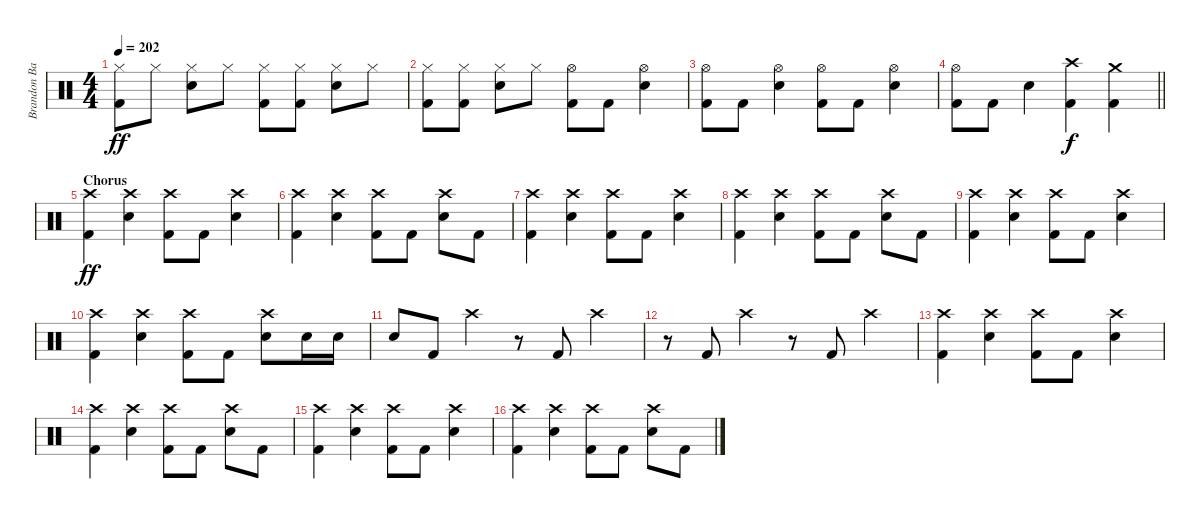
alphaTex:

\track ("Brandon Barnes - Drums" "Brandon Ba") {instrument percussion}
\staff {score}
\articulation defaults
\ts (4 4)
\tempo 202
\clef neutral
\ks c
("Kick (hit) 2" "Hi-Hat (closed)").8{dy ff} "Hi-Hat (closed)".8 ("Snare (hit) 2" "Hi-Hat (closed)").8 "Hi-Hat (closed)".8 ("Kick (hit) 2" "Hi-Hat (closed)").8 ("Kick (hit) 2" "Hi-Hat (closed)").8 ("Snare (hit) 2" "Hi-Hat (closed)").8 "Hi-Hat (closed)".8 |
("Kick (hit) 2" "Hi-Hat (closed)").8 ("Kick (hit) 2" "Hi-Hat (closed)").8 ("Snare (hit) 2" "Hi-Hat (closed)").8 "Hi-Hat (closed)".8 ("Kick (hit) 2" "Hi-Hat (open)").8 "Kick (hit) 2".8 ("Snare (hit) 2" "Hi-Hat (open)").4 |
("Kick (hit) 2" "Hi-Hat (open)").8 "Kick (hit) 2".8 ("Snare (hit) 2" "Hi-Hat (open)").4 ("Kick (hit) 2" "Hi-Hat (open)").8 "Kick (hit) 2".8 ("Snare (hit) 2" "Hi-Hat (open)").4 |
\barLineRight lightlight
("Kick (hit) 2" "Hi-Hat (open)").8 "Kick (hit) 2".8 "Snare (hit) 2".4 ("Crash high (hit)" "Kick (hit) 2").4{dy f} ("Crash medium (hit)" "Kick (hit) 2").4 |
\section ("" "Chorus")
("Kick (hit) 2" "Crash high (hit)").4{dy ff} ("Snare (hit) 2" "Crash high (hit)").4 ("Kick (hit) 2" "Crash high (hit)").8 "Kick (hit) 2".8 ("Snare (hit) 2" "Crash high (hit)").4 |
("Kick (hit) 2" "Crash high (hit)").4 ("Snare (hit) 2" "Crash high (hit)").4 ("Kick (hit) 2" "Crash high (hit)").8 "Kick (hit) 2".8 ("Snare (hit) 2" "Crash high (hit)").8 "Kick (hit) 2".8 |
("Kick (hit) 2" "Crash high (hit)").4 ("Snare (hit) 2" "Crash high (hit)").4 ("Kick (hit) 2" "Crash high (hit)").8 "Kick (hit) 2".8 ("Snare (hit) 2" "Crash high (hit)").4 |
("Kick (hit) 2" "Crash high (hit)").4 ("Snare (hit) 2" "Crash high (hit)").4 ("Kick (hit) 2" "Crash high (hit)").8 "Kick (hit) 2".8 ("Snare (hit) 2" "Crash high (hit)").8 "Kick (hit) 2".8 |
("Kick (hit) 2" "Crash high (hit)").4 ("Snare (hit) 2" "Crash high (hit)").4 ("Kick (hit) 2" "Crash high (hit)").8 "Kick (hit) 2".8 ("Snare (hit) 2" "Crash high (hit)").4 |
("Kick (hit) 2" "Crash high (hit)").4 ("Snare (hit) 2" "Crash high (hit)").4 ("Kick (hit) 2" "Crash high (hit)").8 "Kick (hit) 2".8 ("Snare (hit) 2" "Crash high (hit)").8 "Snare (hit) 2".16 "Snare (hit) 2".16 |
"Snare (hit) 2".8 "Kick (hit) 2".8 "Crash high (hit)".4 r.8 "Kick (hit) 2".8 "Crash high (hit)".4 |
r.8 "Kick (hit) 2".8 "Crash high (hit)".4 r.8 "Kick (hit) 2".8 "Crash high (hit)".4 |
("Kick (hit) 2" "Crash high (hit)").4 ("Snare (hit) 2" "Crash high (hit)").4 ("Kick (hit) 2" "Crash high (hit)").8 "Kick (hit) 2".8 ("Snare (hit) 2" "Crash high (hit)").4 |
("Kick (hit) 2" "Crash high (hit)").4 ("Snare (hit) 2" "Crash high (hit)").4 ("Kick (hit) 2" "Crash high (hit)").8 "Kick (hit) 2".8 ("Snare (hit) 2" "Crash high (hit)").8 "Kick (hit) 2".8 |
("Kick (hit) 2" "Crash high (hit)").4 ("Snare (hit) 2" "Crash high (hit)").4 ("Kick (hit) 2" "Crash high (hit)").8 "Kick (hit) 2".8 ("Snare (hit) 2" "Crash high (hit)").4 |
("Kick (hit) 2" "Crash high (hit)").4 ("Snare (hit) 2" "Crash high (hit)").4 ("Kick (hit) 2" "Crash high (hit)").8 "Kick (hit) 2".8 ("Snare (hit) 2" "Crash high (hit)").8 "Kick (hit) 2".8
